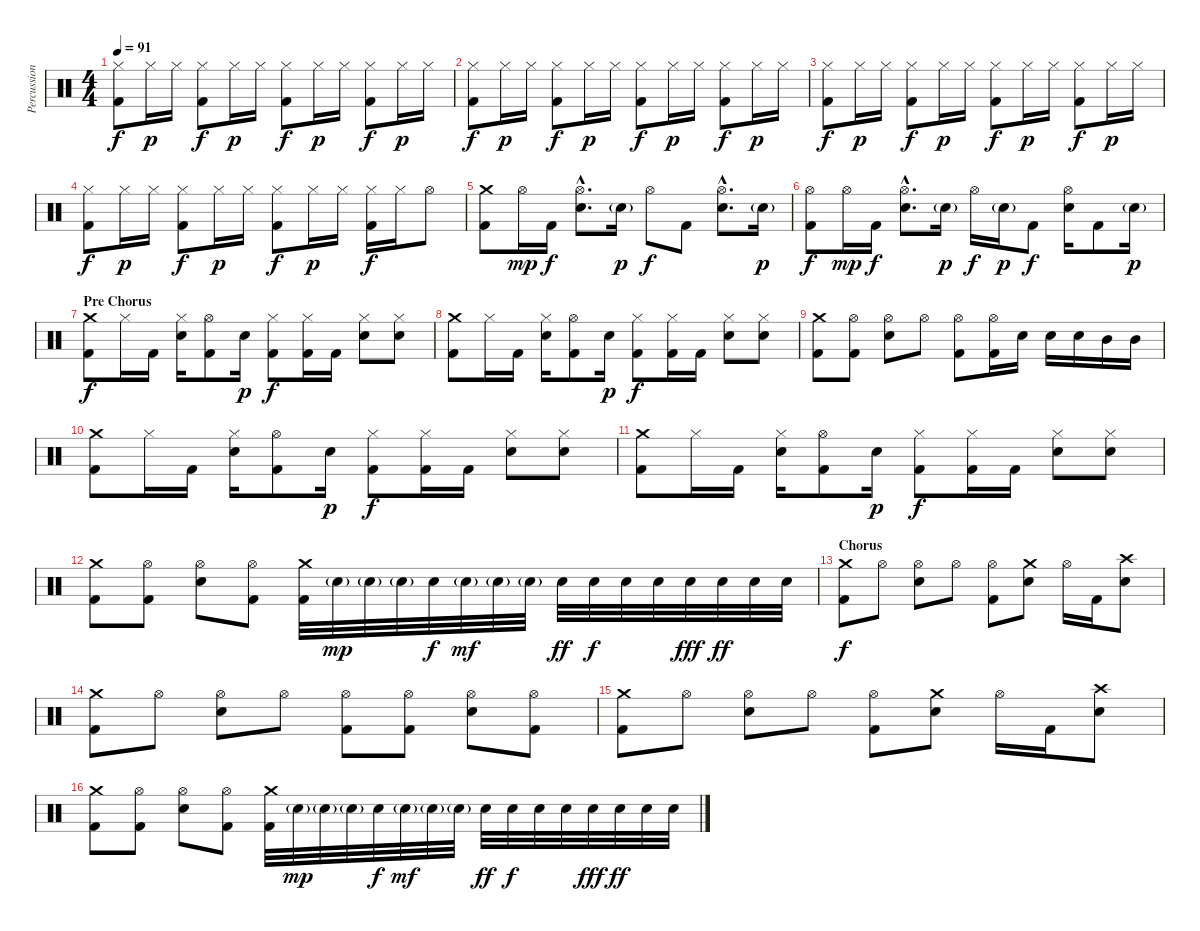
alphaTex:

\track ("Percussion" "Percussion") {instrument percussion}
\staff {score}
\articulation defaults
\ts (4 4)
\tempo 91
\clef neutral
\ks c
("Hi-Hat (closed)" "Kick (hit) 2").8{dy f} "Hi-Hat (closed)".16{dy p} "Hi-Hat (closed)".16 ("Hi-Hat (closed)" "Kick (hit) 2").8{dy f} "Hi-Hat (closed)".16{dy p} "Hi-Hat (closed)".16 ("Hi-Hat (closed)" "Kick (hit) 2").8{dy f} "Hi-Hat (closed)".16{dy p} "Hi-Hat (closed)".16 ("Hi-Hat (closed)" "Kick (hit) 2").8{dy f} "Hi-Hat (closed)".16{dy p} "Hi-Hat (closed)".16 |
("Hi-Hat (closed)" "Kick (hit) 2").8{dy f} "Hi-Hat (closed)".16{dy p} "Hi-Hat (closed)".16 ("Hi-Hat (closed)" "Kick (hit) 2").8{dy f} "Hi-Hat (closed)".16{dy p} "Hi-Hat (closed)".16 ("Hi-Hat (closed)" "Kick (hit) 2").8{dy f} "Hi-Hat (closed)".16{dy p} "Hi-Hat (closed)".16 ("Hi-Hat (closed)" "Kick (hit) 2").8{dy f} "Hi-Hat (closed)".16{dy p} "Hi-Hat (closed)".16 |
("Hi-Hat (closed)" "Kick (hit) 2").8{dy f} "Hi-Hat (closed)".16{dy p} "Hi-Hat (closed)".16 ("Hi-Hat (closed)" "Kick (hit) 2").8{dy f} "Hi-Hat (closed)".16{dy p} "Hi-Hat (closed)".16 ("Hi-Hat (closed)" "Kick (hit) 2").8{dy f} "Hi-Hat (closed)".16{dy p} "Hi-Hat (closed)".16 ("Hi-Hat (closed)" "Kick (hit) 2").8{dy f} "Hi-Hat (closed)".16{dy p} "Hi-Hat (closed)".16 |
("Hi-Hat (closed)" "Kick (hit) 2").8{dy f} "Hi-Hat (closed)".16{dy p} "Hi-Hat (closed)".16 ("Hi-Hat (closed)" "Kick (hit) 2").8{dy f} "Hi-Hat (closed)".16{dy p} "Hi-Hat (closed)".16 ("Hi-Hat (closed)" "Kick (hit) 2").8{dy f} "Hi-Hat (closed)".16{dy p} "Hi-Hat (closed)".16 ("Hi-Hat (closed)" "Kick (hit) 2").16{dy f} "Hi-Hat (closed)".16 "Hi-Hat (open)".8 |
("Crash medium (hit)" "Kick (hit) 2").8 "Hi-Hat (open)".16{dy mp} "Kick (hit) 2".16{dy f} ("Hi-Hat (open)"{hac} "Electric Snare (hit)"{hac}).8{d} "Electric Snare (hit)"{g}.16{dy p} "Hi-Hat (open)".8{dy f} "Kick (hit) 2".8 ("Hi-Hat (open)"{hac} "Electric Snare (hit)"{hac}).8{d} "Electric Snare (hit)"{g}.16{dy p} |
("Hi-Hat (open)" "Kick (hit) 2").8{dy f} "Hi-Hat (open)".16{dy mp} "Kick (hit) 2".16{dy f} ("Hi-Hat (open)"{hac} "Electric Snare (hit)"{hac}).8{d} "Electric Snare (hit)"{g}.16{dy p} "Hi-Hat (open)".16{dy f} "Electric Snare (hit)"{g}.16{dy p} "Kick (hit) 2".8{dy f} ("Hi-Hat (open)" "Electric Snare (hit)").16 "Kick (hit) 2".8 "Electric Snare (hit)"{g}.16{dy p} |
\section ("" "Pre Chorus")
("Crash medium (hit)" "Kick (hit) 2").8{dy f} "Hi-Hat (closed)".16 "Kick (hit) 2".16 ("Hi-Hat (closed)" "Electric Snare (hit)").16 ("Hi-Hat (open)" "Kick (hit) 2").8 "Electric Snare (hit)".16{dy p} ("Hi-Hat (closed)" "Kick (hit) 2").8{dy f} ("Hi-Hat (closed)" "Kick (hit) 2").16 "Kick (hit) 2".16 ("Hi-Hat (closed)" "Electric Snare (hit)").8 ("Hi-Hat (closed)" "Electric Snare (hit)").8 |
("Crash medium (hit)" "Kick (hit) 2").8 "Hi-Hat (closed)".16 "Kick (hit) 2".16 ("Hi-Hat (closed)" "Electric Snare (hit)").16 ("Hi-Hat (open)" "Kick (hit) 2").8 "Electric Snare (hit)".16{dy p} ("Hi-Hat (closed)" "Kick (hit) 2").8{dy f} ("Hi-Hat (closed)" "Kick (hit) 2").16 "Kick (hit) 2".16 ("Hi-Hat (closed)" "Electric Snare (hit)").8 ("Hi-Hat (closed)" "Electric Snare (hit)").8 |
("Crash medium (hit)" "Kick (hit) 2").8 ("Hi-Hat (open)" "Kick (hit) 2").8 ("Hi-Hat (open)" "Electric Snare (hit)").8 "Hi-Hat (open)".8 ("Hi-Hat (open)" "Kick (hit) 2").8 ("Hi-Hat (open)" "Kick (hit) 2").16 "Electric Snare (hit)".16 "Electric Snare (hit)".16 "Electric Snare (hit)".16 "Mid Tom (hit)".16 "Mid Tom (hit)".16 |
("Crash medium (hit)" "Kick (hit) 2").8 "Hi-Hat (closed)".16 "Kick (hit) 2".16 ("Hi-Hat (closed)" "Electric Snare (hit)").16 ("Hi-Hat (open)" "Kick (hit) 2").8 "Electric Snare (hit)".16{dy p} ("Hi-Hat (closed)" "Kick (hit) 2").8{dy f} ("Hi-Hat (closed)" "Kick (hit) 2").16 "Kick (hit) 2".16 ("Hi-Hat (closed)" "Electric Snare (hit)").8 ("Hi-Hat (closed)" "Electric Snare (hit)").8 |
("Crash medium (hit)" "Kick (hit) 2").8 "Hi-Hat (closed)".16 "Kick (hit) 2".16 ("Hi-Hat (closed)" "Electric Snare (hit)").16 ("Hi-Hat (open)" "Kick (hit) 2").8 "Electric Snare (hit)".16{dy p} ("Hi-Hat (closed)" "Kick (hit) 2").8{dy f} ("Hi-Hat (closed)" "Kick (hit) 2").16 "Kick (hit) 2".16 ("Hi-Hat (closed)" "Electric Snare (hit)").8 ("Hi-Hat (closed)" "Electric Snare (hit)").8 |
("Crash medium (hit)" "Kick (hit) 2").8 ("Hi-Hat (open)" "Kick (hit) 2").8 ("Hi-Hat (open)" "Electric Snare (hit)").8 ("Hi-Hat (open)" "Kick (hit) 2").8 ("Crash medium (hit)" "Kick (hit) 2").32 "Electric Snare (hit)"{g}.32{dy mp} "Electric Snare (hit)"{g}.32 "Electric Snare (hit)"{g}.32 "Electric Snare (hit)".32{dy f} "Electric Snare (hit)"{g}.32{dy mf} "Electric Snare (hit)"{g}.32 "Electric Snare (hit)"{g}.32 "Electric Snare (hit)".32{dy ff} "Electric Snare (hit)".32{dy f} "Electric Snare (hit)".32 "Electric Snare (hit)".32 "Electric Snare (hit)".32{dy fff} "Electric Snare (hit)".32{dy ff} "Electric Snare (hit)".32 "Electric Snare (hit)".32 |
\section ("" "Chorus")
("Crash medium (hit)" "Kick (hit) 2").8{dy f} "Hi-Hat (open)".8 ("Hi-Hat (open)" "Electric Snare (hit)").8 "Hi-Hat (open)".8 ("Hi-Hat (open)" "Kick (hit) 2").8 ("Crash medium (hit)" "Electric Snare (hit)").8 "Hi-Hat (open)".16 "Kick (hit) 2".16 ("Crash high (hit)" "Electric Snare (hit)").8 |
("Crash medium (hit)" "Kick (hit) 2").8 "Hi-Hat (open)".8 ("Hi-Hat (open)" "Electric Snare (hit)").8 "Hi-Hat (open)".8 ("Hi-Hat (open)" "Kick (hit) 2").8 ("Hi-Hat (open)" "Kick (hit) 2").8 ("Hi-Hat (open)" "Electric Snare (hit)").8 ("Hi-Hat (open)" "Kick (hit) 2").8 |
("Crash medium (hit)" "Kick (hit) 2").8 "Hi-Hat (open)".8 ("Hi-Hat (open)" "Electric Snare (hit)").8 "Hi-Hat (open)".8 ("Hi-Hat (open)" "Kick (hit) 2").8 ("Crash medium (hit)" "Electric Snare (hit)").8 "Hi-Hat (open)".16 "Kick (hit) 2".16 ("Crash high (hit)" "Electric Snare (hit)").8 |
("Crash medium (hit)" "Kick (hit) 2").8 ("Hi-Hat (open)" "Kick (hit) 2").8 ("Hi-Hat (open)" "Electric Snare (hit)").8 ("Hi-Hat (open)" "Kick (hit) 2").8 ("Crash medium (hit)" "Kick (hit) 2").32 "Electric Snare (hit)"{g}.32{dy mp} "Electric Snare (hit)"{g}.32 "Electric Snare (hit)"{g}.32 "Electric Snare (hit)".32{dy f} "Electric Snare (hit)"{g}.32{dy mf} "Electric Snare (hit)"{g}.32 "Electric Snare (hit)"{g}.32 "Electric Snare (hit)".32{dy ff} "Electric Snare (hit)".32{dy f} "Electric Snare (hit)".32 "Electric Snare (hit)".32 "Electric Snare (hit)".32{dy fff} "Electric Snare (hit)".32{dy ff} "Electric Snare (hit)".32 "Electric Snare (hit)".32
